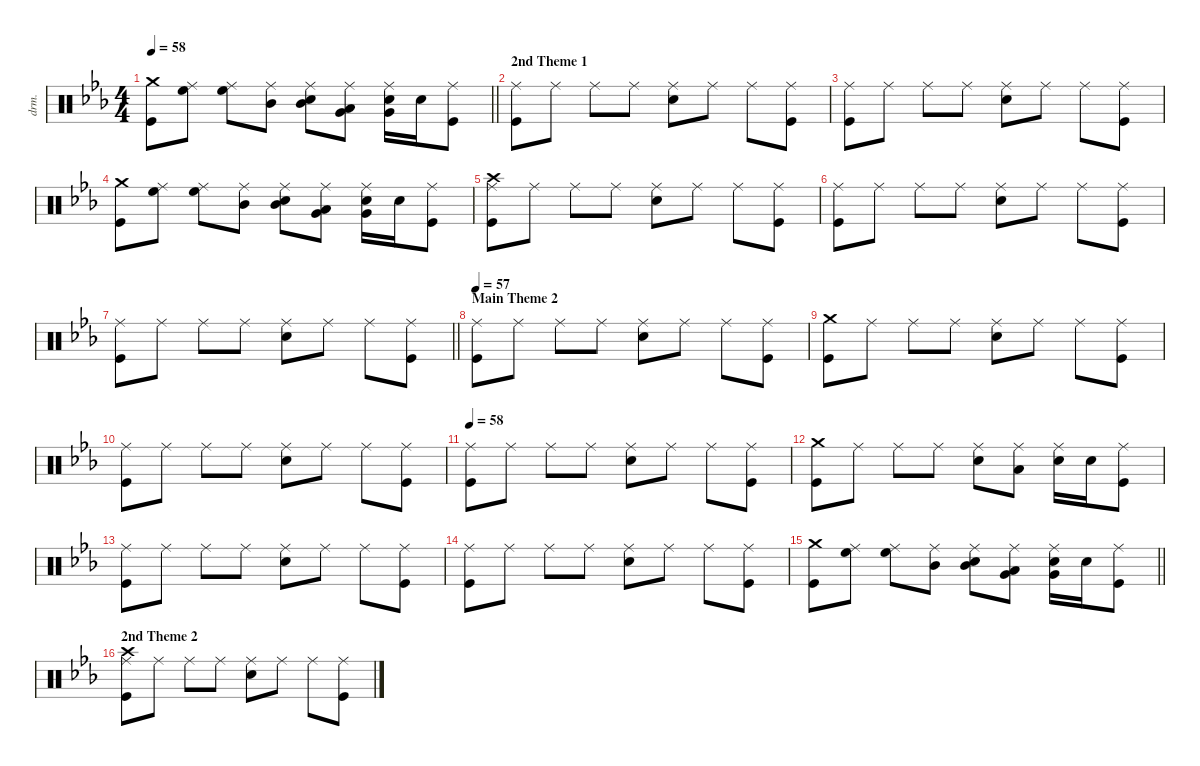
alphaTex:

\defaultSystemsLayout 4
\hideDynamics
\bracketExtendMode groupsimilarinstruments
\otherSystemsTrackNameOrientation horizontal
\track ("Percussion" "drm.") {defaultSystemsLayout 4 instrument percussion}
\staff {score}
\articulation defaults
\ts (4 4)
\tempo 58
\clef neutral
\barLineRight lightlight
\ks cminor
("Crash medium (hit)"{acc forcenatural} "Kick (hit)"{acc forcenatural}).8{dy f beam Down} ("High Floor Tom (hit)"{acc forcenatural} "Ride (middle)"{acc forcenatural}).8{beam Down} ("High Floor Tom (hit)"{acc forcenatural} "Ride (middle)"{acc forcenatural}).8{beam Down} ("Mid Tom (hit)"{acc forcenatural} "Ride (middle)"{acc forcenatural}).8{beam Down} ("Mid Tom (hit)"{acc forcenatural} "Snare (hit) 2"{acc forcenatural} "Ride (middle)"{acc forcenatural}).8{beam Down} ("Very Low Tom (hit)"{acc forcenatural} "Low Floor Tom (hit)"{acc forcenatural} "Ride (middle)"{acc forcenatural}).8{beam Down} ("Very Low Tom (hit)"{acc forcenatural} "Snare (hit) 2"{acc forcenatural} "Ride (middle)"{acc forcenatural}).16{beam Down} "Snare (hit) 2"{acc forcenatural}.16{beam Down} ("Kick (hit)"{acc forcenatural} "Ride (middle)"{acc forcenatural}).8{beam Down} |
\section ("" "2nd Theme 1")
("Ride (middle)"{acc forcenatural} "Kick (hit)"{acc forcenatural}).8{beam Down} "Ride (middle)"{acc forcenatural}.8{beam Down} "Ride (middle)"{acc forcenatural}.8{beam Down} "Ride (middle)"{acc forcenatural}.8{beam Down} ("Snare (hit) 2"{acc forcenatural} "Ride (middle)"{acc forcenatural}).8{beam Down} "Ride (middle)"{acc forcenatural}.8{beam Down} "Ride (middle)"{acc forcenatural}.8{beam Down} ("Kick (hit)"{acc forcenatural} "Ride (middle)"{acc forcenatural}).8{beam Down} |
("Ride (middle)"{acc forcenatural} "Kick (hit)"{acc forcenatural}).8{beam Down} "Ride (middle)"{acc forcenatural}.8{beam Down} "Ride (middle)"{acc forcenatural}.8{beam Down} "Ride (middle)"{acc forcenatural}.8{beam Down} ("Snare (hit) 2"{acc forcenatural} "Ride (middle)"{acc forcenatural}).8{beam Down} "Ride (middle)"{acc forcenatural}.8{beam Down} "Ride (middle)"{acc forcenatural}.8{beam Down} ("Kick (hit)"{acc forcenatural} "Ride (middle)"{acc forcenatural}).8{beam Down} |
("Crash medium (hit)"{acc forcenatural} "Kick (hit)"{acc forcenatural}).8{beam Down} ("High Floor Tom (hit)"{acc forcenatural} "Ride (middle)"{acc forcenatural}).8{beam Down} ("High Floor Tom (hit)"{acc forcenatural} "Ride (middle)"{acc forcenatural}).8{beam Down} ("Mid Tom (hit)"{acc forcenatural} "Ride (middle)"{acc forcenatural}).8{beam Down} ("Mid Tom (hit)"{acc forcenatural} "Snare (hit) 2"{acc forcenatural} "Ride (middle)"{acc forcenatural}).8{beam Down} ("Very Low Tom (hit)"{acc forcenatural} "Low Floor Tom (hit)"{acc forcenatural} "Ride (middle)"{acc forcenatural}).8{beam Down} ("Very Low Tom (hit)"{acc forcenatural} "Snare (hit) 2"{acc forcenatural} "Ride (middle)"{acc forcenatural}).16{beam Down} "Snare (hit) 2"{acc forcenatural}.16{beam Down} ("Kick (hit)"{acc forcenatural} "Ride (middle)"{acc forcenatural}).8{beam Down} |
("Crash high (hit)"{acc forcenatural} "Kick (hit)"{acc forcenatural} "Ride (middle)"{acc forcenatural}).8{beam Down} "Ride (middle)"{acc forcenatural}.8{beam Down} "Ride (middle)"{acc forcenatural}.8{beam Down} "Ride (middle)"{acc forcenatural}.8{beam Down} ("Snare (hit) 2"{acc forcenatural} "Ride (middle)"{acc forcenatural}).8{beam Down} "Ride (middle)"{acc forcenatural}.8{beam Down} "Ride (middle)"{acc forcenatural}.8{beam Down} ("Kick (hit)"{acc forcenatural} "Ride (middle)"{acc forcenatural}).8{beam Down} |
("Ride (middle)"{acc forcenatural} "Kick (hit)"{acc forcenatural}).8{beam Down} "Ride (middle)"{acc forcenatural}.8{beam Down} "Ride (middle)"{acc forcenatural}.8{beam Down} "Ride (middle)"{acc forcenatural}.8{beam Down} ("Snare (hit) 2"{acc forcenatural} "Ride (middle)"{acc forcenatural}).8{beam Down} "Ride (middle)"{acc forcenatural}.8{beam Down} "Ride (middle)"{acc forcenatural}.8{beam Down} ("Kick (hit)"{acc forcenatural} "Ride (middle)"{acc forcenatural}).8{beam Down} |
\barLineRight lightlight
("Ride (middle)"{acc forcenatural} "Kick (hit)"{acc forcenatural}).8{beam Down} "Ride (middle)"{acc forcenatural}.8{beam Down} "Ride (middle)"{acc forcenatural}.8{beam Down} "Ride (middle)"{acc forcenatural}.8{beam Down} ("Snare (hit) 2"{acc forcenatural} "Ride (middle)"{acc forcenatural}).8{beam Down} "Ride (middle)"{acc forcenatural}.8{beam Down} "Ride (middle)"{acc forcenatural}.8{beam Down} ("Kick (hit)"{acc forcenatural} "Ride (middle)"{acc forcenatural}).8{beam Down} |
\section ("" "Main Theme 2")
\tempo 57
("Ride (middle)"{acc forcenatural} "Kick (hit)"{acc forcenatural}).8{beam Down} "Ride (middle)"{acc forcenatural}.8{beam Down} "Ride (middle)"{acc forcenatural}.8{beam Down} "Ride (middle)"{acc forcenatural}.8{beam Down} ("Snare (hit) 2"{acc forcenatural} "Ride (middle)"{acc forcenatural}).8{beam Down} "Ride (middle)"{acc forcenatural}.8{beam Down} "Ride (middle)"{acc forcenatural}.8{beam Down} ("Kick (hit)"{acc forcenatural} "Ride (middle)"{acc forcenatural}).8{beam Down} |
("Crash medium (hit)"{acc forcenatural} "Kick (hit)"{acc forcenatural}).8{beam Down} "Ride (middle)"{acc forcenatural}.8{beam Down} "Ride (middle)"{acc forcenatural}.8{beam Down} "Ride (middle)"{acc forcenatural}.8{beam Down} ("Snare (hit) 2"{acc forcenatural} "Ride (middle)"{acc forcenatural}).8{beam Down} "Ride (middle)"{acc forcenatural}.8{beam Down} "Ride (middle)"{acc forcenatural}.8{beam Down} ("Kick (hit)"{acc forcenatural} "Ride (middle)"{acc forcenatural}).8{beam Down} |
("Ride (middle)"{acc forcenatural} "Kick (hit)"{acc forcenatural}).8{beam Down} "Ride (middle)"{acc forcenatural}.8{beam Down} "Ride (middle)"{acc forcenatural}.8{beam Down} "Ride (middle)"{acc forcenatural}.8{beam Down} ("Snare (hit) 2"{acc forcenatural} "Ride (middle)"{acc forcenatural}).8{beam Down} "Ride (middle)"{acc forcenatural}.8{beam Down} "Ride (middle)"{acc forcenatural}.8{beam Down} ("Kick (hit)"{acc forcenatural} "Ride (middle)"{acc forcenatural}).8{beam Down} |
\tempo 58
("Ride (middle)"{acc forcenatural} "Kick (hit)"{acc forcenatural}).8{beam Down} "Ride (middle)"{acc forcenatural}.8{beam Down} "Ride (middle)"{acc forcenatural}.8{beam Down} "Ride (middle)"{acc forcenatural}.8{beam Down} ("Snare (hit) 2"{acc forcenatural} "Ride (middle)"{acc forcenatural}).8{beam Down} "Ride (middle)"{acc forcenatural}.8{beam Down} "Ride (middle)"{acc forcenatural}.8{beam Down} ("Kick (hit)"{acc forcenatural} "Ride (middle)"{acc forcenatural}).8{beam Down} |
("Crash medium (hit)"{acc forcenatural} "Kick (hit)"{acc forcenatural}).8{beam Down} "Ride (middle)"{acc forcenatural}.8{beam Down} "Ride (middle)"{acc forcenatural}.8{beam Down} "Ride (middle)"{acc forcenatural}.8{beam Down} ("Snare (hit) 2"{acc forcenatural} "Ride (middle)"{acc forcenatural}).8{beam Down} ("Low Floor Tom (hit)"{acc forcenatural} "Ride (middle)"{acc forcenatural}).8{beam Down} ("Snare (hit) 2"{acc forcenatural} "Ride (middle)"{acc forcenatural}).16{beam Down} "Snare (hit) 2"{acc forcenatural}.16{beam Down} ("Kick (hit)"{acc forcenatural} "Ride (middle)"{acc forcenatural}).8{beam Down} |
("Ride (middle)"{acc forcenatural} "Kick (hit)"{acc forcenatural}).8{beam Down} "Ride (middle)"{acc forcenatural}.8{beam Down} "Ride (middle)"{acc forcenatural}.8{beam Down} "Ride (middle)"{acc forcenatural}.8{beam Down} ("Snare (hit) 2"{acc forcenatural} "Ride (middle)"{acc forcenatural}).8{beam Down} "Ride (middle)"{acc forcenatural}.8{beam Down} "Ride (middle)"{acc forcenatural}.8{beam Down} ("Kick (hit)"{acc forcenatural} "Ride (middle)"{acc forcenatural}).8{beam Down} |
("Ride (middle)"{acc forcenatural} "Kick (hit)"{acc forcenatural}).8{beam Down} "Ride (middle)"{acc forcenatural}.8{beam Down} "Ride (middle)"{acc forcenatural}.8{beam Down} "Ride (middle)"{acc forcenatural}.8{beam Down} ("Snare (hit) 2"{acc forcenatural} "Ride (middle)"{acc forcenatural}).8{beam Down} "Ride (middle)"{acc forcenatural}.8{beam Down} "Ride (middle)"{acc forcenatural}.8{beam Down} ("Kick (hit)"{acc forcenatural} "Ride (middle)"{acc forcenatural}).8{beam Down} |
\barLineRight lightlight
("Crash medium (hit)"{acc forcenatural} "Kick (hit)"{acc forcenatural}).8{beam Down} ("High Floor Tom (hit)"{acc forcenatural} "Ride (middle)"{acc forcenatural}).8{beam Down} ("High Floor Tom (hit)"{acc forcenatural} "Ride (middle)"{acc forcenatural}).8{beam Down} ("Mid Tom (hit)"{acc forcenatural} "Ride (middle)"{acc forcenatural}).8{beam Down} ("Mid Tom (hit)"{acc forcenatural} "Snare (hit) 2"{acc forcenatural} "Ride (middle)"{acc forcenatural}).8{beam Down} ("Very Low Tom (hit)"{acc forcenatural} "Low Floor Tom (hit)"{acc forcenatural} "Ride (middle)"{acc forcenatural}).8{beam Down} ("Very Low Tom (hit)"{acc forcenatural} "Snare (hit) 2"{acc forcenatural} "Ride (middle)"{acc forcenatural}).16{beam Down} "Snare (hit) 2"{acc forcenatural}.16{beam Down} ("Kick (hit)"{acc forcenatural} "Ride (middle)"{acc forcenatural}).8{beam Down} |
\section ("" "2nd Theme 2")
("Crash high (hit)"{acc forcenatural} "Kick (hit)"{acc forcenatural} "Ride (middle)"{acc forcenatural}).8{beam Down} "Ride (middle)"{acc forcenatural}.8{beam Down} "Ride (middle)"{acc forcenatural}.8{beam Down} "Ride (middle)"{acc forcenatural}.8{beam Down} ("Snare (hit) 2"{acc forcenatural} "Ride (middle)"{acc forcenatural}).8{beam Down} "Ride (middle)"{acc forcenatural}.8{beam Down} "Ride (middle)"{acc forcenatural}.8{beam Down} ("Kick (hit)"{acc forcenatural} "Ride (middle)"{acc forcenatural}).8{beam Down}
